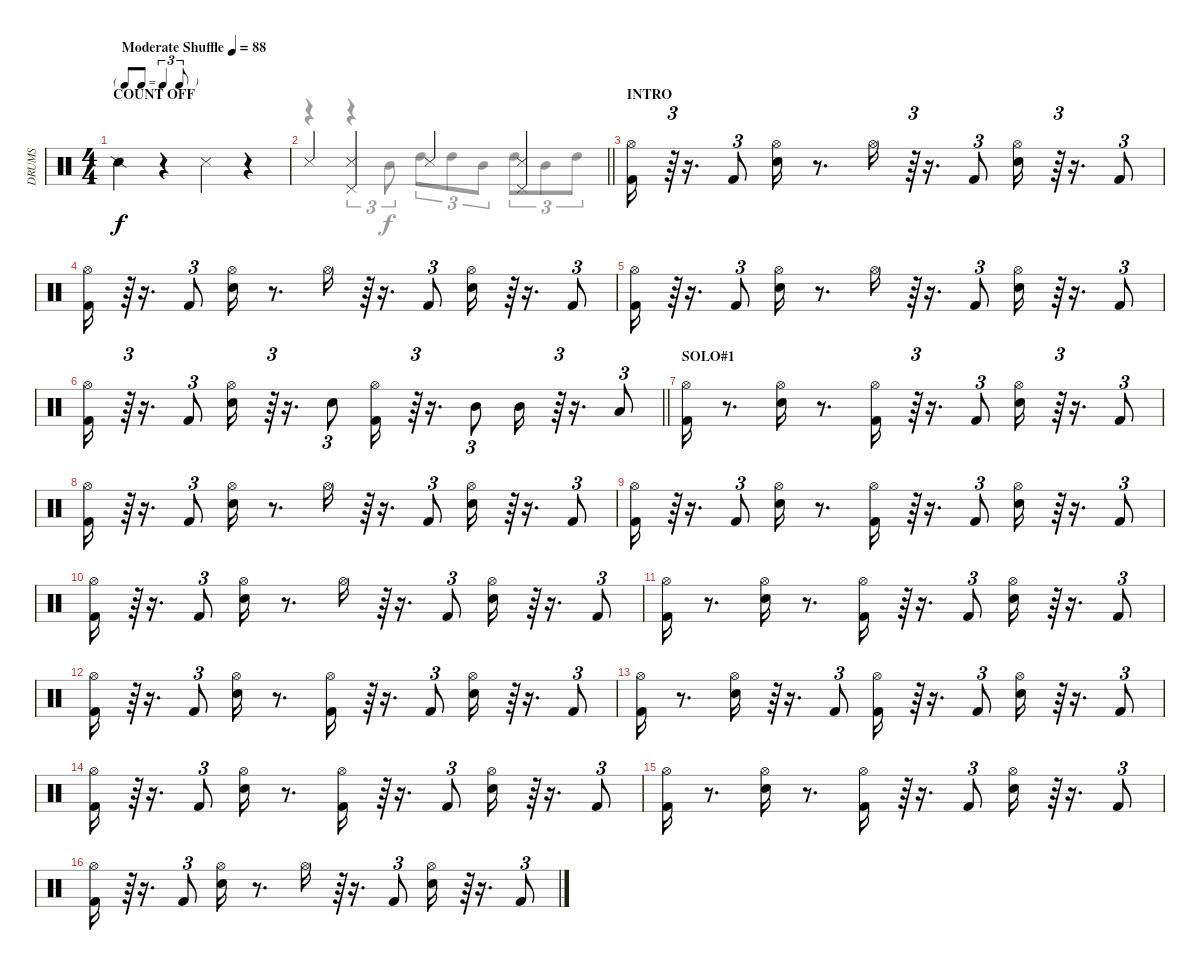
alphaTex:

\track ("DRUMS" "DRUMS") {instrument percussion}
\staff {score}
\articulation defaults
\voice
\ts (4 4)
\tf triplet8th
\section ("" "COUNT OFF")
\tempo (88 "Moderate Shuffle")
\clef neutral
\ks c "Snare (side stick) 2".4{dy f}
r.4 "Snare (side stick) 3".4 r.4 |
\barLineRight lightlight "Snare (side stick) 3".4
("Snare (side stick) 3" "Pedal Hi-Hat (hit)").4 "Snare (side stick) 3".4 ("Snare (side stick) 3" "Pedal Hi-Hat (hit)").4 |
\section ("" "INTRO")
("Kick (hit) 2" "Hi-Hat (open)").16 r.64{tu (3 2)} r.16{d} "Kick (hit) 2".8{tu (3 2)} ("Snare (hit) 2" "Hi-Hat (open)").16 r.8{d} "Hi-Hat (open)".16 r.64{tu (3 2)} r.16{d} "Kick (hit) 2".8{tu (3 2)} ("Snare (hit) 2" "Hi-Hat (open)").16 r.64{tu (3 2)} r.16{d} "Kick (hit) 2".8{tu (3 2)} |
("Kick (hit) 2" "Hi-Hat (open)").16 r.64{tu (3 2)} r.16{d} "Kick (hit) 2".8{tu (3 2)} ("Snare (hit) 2" "Hi-Hat (open)").16 r.8{d} "Hi-Hat (open)".16 r.64{tu (3 2)} r.16{d} "Kick (hit) 2".8{tu (3 2)} ("Snare (hit) 2" "Hi-Hat (open)").16 r.64{tu (3 2)} r.16{d} "Kick (hit) 2".8{tu (3 2)} |
("Kick (hit) 2" "Hi-Hat (open)").16 r.64{tu (3 2)} r.16{d} "Kick (hit) 2".8{tu (3 2)} ("Snare (hit) 2" "Hi-Hat (open)").16 r.8{d} "Hi-Hat (open)".16 r.64{tu (3 2)} r.16{d} "Kick (hit) 2".8{tu (3 2)} ("Snare (hit) 2" "Hi-Hat (open)").16 r.64{tu (3 2)} r.16{d} "Kick (hit) 2".8{tu (3 2)} |
\barLineRight lightlight
("Kick (hit) 2" "Hi-Hat (open)").16 r.64{tu (3 2)} r.16{d} "Kick (hit) 2".8{tu (3 2)} ("Snare (hit) 2" "Hi-Hat (open)").16 r.64{tu (3 2)} r.16{d} "Snare (hit) 2".8{tu (3 2)} ("Kick (hit) 2" "Hi-Hat (open)").16 r.64{tu (3 2)} r.16{d} "Mid Tom (hit)".8{tu (3 2)} "Mid Tom (hit)".16 r.64{tu (3 2)} r.16{d} "Low Floor Tom (hit)".8{tu (3 2)} |
\section ("" "SOLO#1")
("Kick (hit) 2" "Hi-Hat (open)").16 r.8{d} ("Snare (hit) 2" "Hi-Hat (open)").16 r.8{d} ("Kick (hit) 2" "Hi-Hat (open)").16 r.64{tu (3 2)} r.16{d} "Kick (hit) 2".8{tu (3 2)} ("Snare (hit) 2" "Hi-Hat (open)").16 r.64{tu (3 2)} r.16{d} "Kick (hit) 2".8{tu (3 2)} |
("Kick (hit) 2" "Hi-Hat (open)").16 r.64{tu (3 2)} r.16{d} "Kick (hit) 2".8{tu (3 2)} ("Snare (hit) 2" "Hi-Hat (open)").16 r.8{d} "Hi-Hat (open)".16 r.64{tu (3 2)} r.16{d} "Kick (hit) 2".8{tu (3 2)} ("Snare (hit) 2" "Hi-Hat (open)").16 r.64{tu (3 2)} r.16{d} "Kick (hit) 2".8{tu (3 2)} |
("Kick (hit) 2" "Hi-Hat (open)").16 r.64{tu (3 2)} r.16{d} "Kick (hit) 2".8{tu (3 2)} ("Snare (hit) 2" "Hi-Hat (open)").16 r.8{d} ("Kick (hit) 2" "Hi-Hat (open)").16 r.64{tu (3 2)} r.16{d} "Kick (hit) 2".8{tu (3 2)} ("Snare (hit) 2" "Hi-Hat (open)").16 r.64{tu (3 2)} r.16{d} "Kick (hit) 2".8{tu (3 2)} |
("Kick (hit) 2" "Hi-Hat (open)").16 r.64{tu (3 2)} r.16{d} "Kick (hit) 2".8{tu (3 2)} ("Snare (hit) 2" "Hi-Hat (open)").16 r.8{d} "Hi-Hat (open)".16 r.64{tu (3 2)} r.16{d} "Kick (hit) 2".8{tu (3 2)} ("Snare (hit) 2" "Hi-Hat (open)").16 r.64{tu (3 2)} r.16{d} "Kick (hit) 2".8{tu (3 2)} |
("Kick (hit) 2" "Hi-Hat (open)").16 r.8{d} ("Snare (hit) 2" "Hi-Hat (open)").16 r.8{d} ("Kick (hit) 2" "Hi-Hat (open)").16 r.64{tu (3 2)} r.16{d} "Kick (hit) 2".8{tu (3 2)} ("Snare (hit) 2" "Hi-Hat (open)").16 r.64{tu (3 2)} r.16{d} "Kick (hit) 2".8{tu (3 2)} |
("Kick (hit) 2" "Hi-Hat (open)").16 r.64{tu (3 2)} r.16{d} "Kick (hit) 2".8{tu (3 2)} ("Snare (hit) 2" "Hi-Hat (open)").16 r.8{d} ("Kick (hit) 2" "Hi-Hat (open)").16 r.64{tu (3 2)} r.16{d} "Kick (hit) 2".8{tu (3 2)} ("Snare (hit) 2" "Hi-Hat (open)").16 r.64{tu (3 2)} r.16{d} "Kick (hit) 2".8{tu (3 2)} |
("Kick (hit) 2" "Hi-Hat (open)").16 r.8{d} ("Snare (hit) 2" "Hi-Hat (open)").16 r.64{tu (3 2)} r.16{d} "Kick (hit) 2".8{tu (3 2)} ("Kick (hit) 2" "Hi-Hat (open)").16 r.64{tu (3 2)} r.16{d} "Kick (hit) 2".8{tu (3 2)} ("Snare (hit) 2" "Hi-Hat (open)").16 r.64{tu (3 2)} r.16{d} "Kick (hit) 2".8{tu (3 2)} |
("Kick (hit) 2" "Hi-Hat (open)").16 r.64{tu (3 2)} r.16{d} "Kick (hit) 2".8{tu (3 2)} ("Snare (hit) 2" "Hi-Hat (open)").16 r.8{d} ("Kick (hit) 2" "Hi-Hat (open)").16 r.64{tu (3 2)} r.16{d} "Kick (hit) 2".8{tu (3 2)} ("Snare (hit) 2" "Hi-Hat (open)").16 r.64{tu (3 2)} r.16{d} "Kick (hit) 2".8{tu (3 2)} |
("Kick (hit) 2" "Hi-Hat (open)").16 r.8{d} ("Snare (hit) 2" "Hi-Hat (open)").16 r.8{d} ("Kick (hit) 2" "Hi-Hat (open)").16 r.64{tu (3 2)} r.16{d} "Kick (hit) 2".8{tu (3 2)} ("Snare (hit) 2" "Hi-Hat (open)").16 r.64{tu (3 2)} r.16{d} "Kick (hit) 2".8{tu (3 2)} |
("Kick (hit) 2" "Hi-Hat (open)").16 r.64{tu (3 2)} r.16{d} "Kick (hit) 2".8{tu (3 2)} ("Snare (hit) 2" "Hi-Hat (open)").16 r.8{d} "Hi-Hat (open)".16 r.64{tu (3 2)} r.16{d} "Kick (hit) 2".8{tu (3 2)} ("Snare (hit) 2" "Hi-Hat (open)").16 r.64{tu (3 2)} r.16{d} "Kick (hit) 2".8{tu (3 2)}
\voice
\clef neutral
\ottava regular
\simile none
\ks c
|
\barLineRight lightlight
r.4 r.4{tu (3 2)} "Mid Tom (hit)".8{tu (3 2)} "High Tom (hit)".8{tu (3 2)} "High Tom (hit)".8{tu (3 2)} "Mid Tom (hit)".8{tu (3 2)} "High Tom (hit)".8{tu (3 2)} "Mid Tom (hit)".8{tu (3 2)} "High Tom (hit)".8{tu (3 2)} |
|
|
|
\barLineRight lightlight
|
|
|
|
|
|
|
|
|
|
